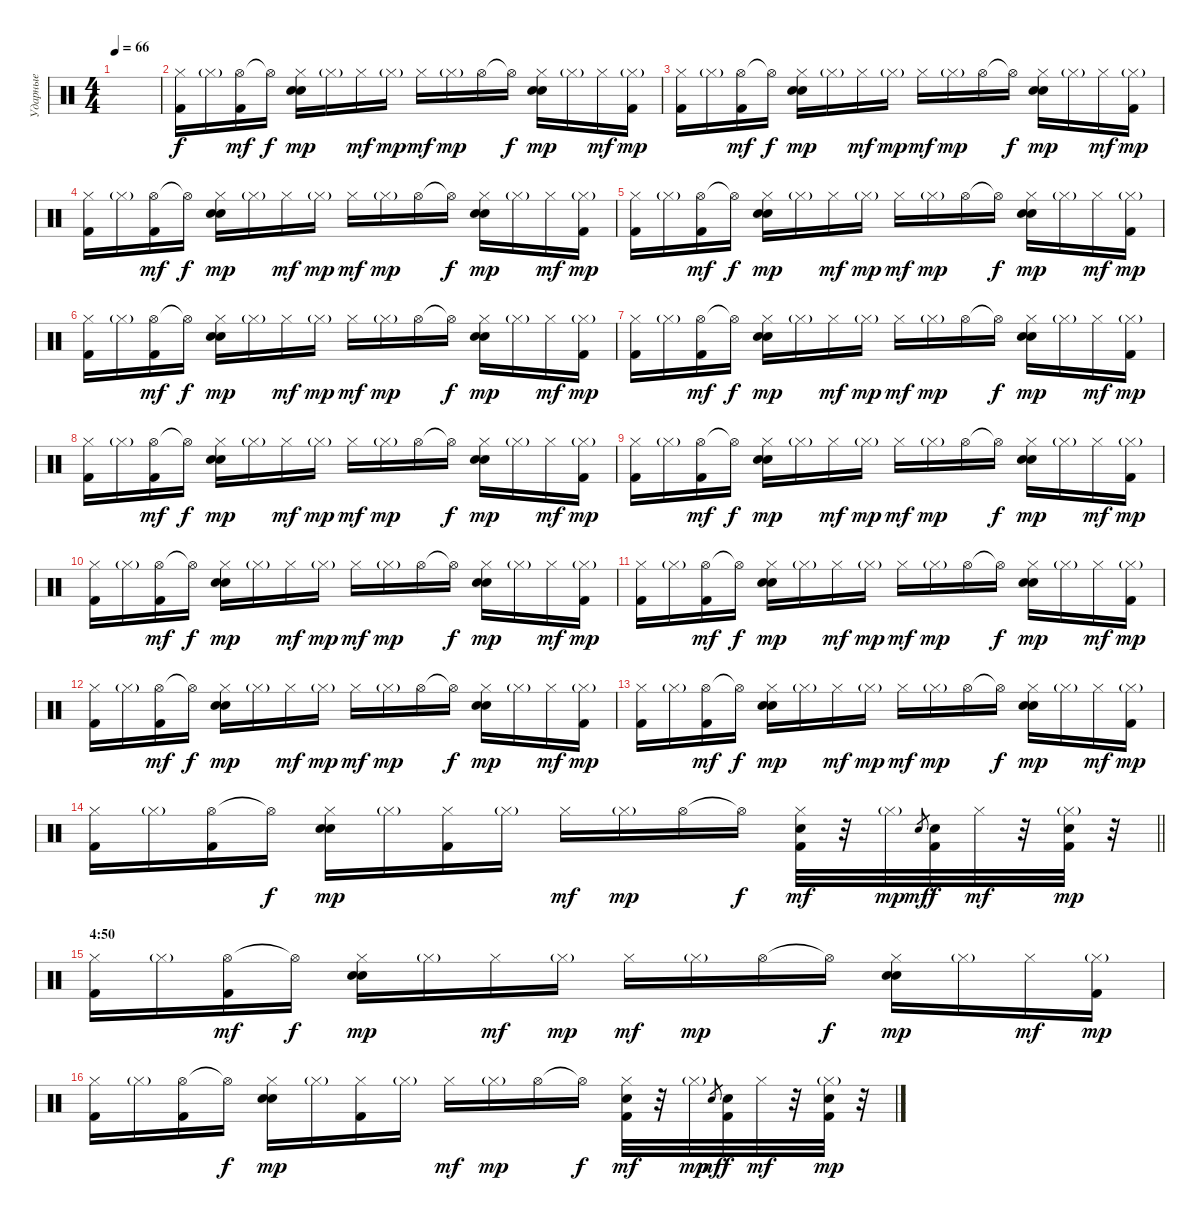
\track ("Ударные" "Ударные") {instrument percussion}
\staff {score}
\articulation defaults
\ts (4 4)
\tempo 66
\clef neutral
\ks c
|
("Hi-Hat (closed)" "Kick (hit) 2").16 "Hi-Hat (closed)"{g}.16 ("Hi-Hat (open)" "Kick (hit) 2").16{dy mf} "Hi-Hat (open)"{t}.16{dy f} ("Hi-Hat (closed)" "Hand Clap (hit)" "Electric Snare (hit)").16{dy mp} "Hi-Hat (closed)"{g}.16 "Hi-Hat (closed)".16{dy mf} "Hi-Hat (closed)"{g}.16{dy mp} "Hi-Hat (closed)".16{dy mf} "Hi-Hat (closed)"{g}.16{dy mp} "Hi-Hat (open)".16{balance 0} "Hi-Hat (open)"{t}.16{dy f} ("Hi-Hat (closed)" "Hand Clap (hit)" "Electric Snare (hit)").16{dy mp balance 8} "Hi-Hat (closed)"{g}.16 "Hi-Hat (closed)".16{dy mf} ("Hi-Hat (closed)"{g} "Kick (hit) 2").16{dy mp} |
("Hi-Hat (closed)" "Kick (hit) 2").16 "Hi-Hat (closed)"{g}.16 ("Hi-Hat (open)" "Kick (hit) 2").16{dy mf} "Hi-Hat (open)"{t}.16{dy f} ("Hi-Hat (closed)" "Hand Clap (hit)" "Electric Snare (hit)").16{dy mp} "Hi-Hat (closed)"{g}.16 "Hi-Hat (closed)".16{dy mf} "Hi-Hat (closed)"{g}.16{dy mp} "Hi-Hat (closed)".16{dy mf} "Hi-Hat (closed)"{g}.16{dy mp} "Hi-Hat (open)".16{balance 0} "Hi-Hat (open)"{t}.16{dy f} ("Hi-Hat (closed)" "Hand Clap (hit)" "Electric Snare (hit)").16{dy mp balance 8} "Hi-Hat (closed)"{g}.16 "Hi-Hat (closed)".16{dy mf} ("Hi-Hat (closed)"{g} "Kick (hit) 2").16{dy mp} |
("Hi-Hat (closed)" "Kick (hit) 2").16 "Hi-Hat (closed)"{g}.16 ("Hi-Hat (open)" "Kick (hit) 2").16{dy mf} "Hi-Hat (open)"{t}.16{dy f} ("Hi-Hat (closed)" "Hand Clap (hit)" "Electric Snare (hit)").16{dy mp} "Hi-Hat (closed)"{g}.16 "Hi-Hat (closed)".16{dy mf} "Hi-Hat (closed)"{g}.16{dy mp} "Hi-Hat (closed)".16{dy mf} "Hi-Hat (closed)"{g}.16{dy mp} "Hi-Hat (open)".16{balance 0} "Hi-Hat (open)"{t}.16{dy f} ("Hi-Hat (closed)" "Hand Clap (hit)" "Electric Snare (hit)").16{dy mp balance 8} "Hi-Hat (closed)"{g}.16 "Hi-Hat (closed)".16{dy mf} ("Hi-Hat (closed)"{g} "Kick (hit) 2").16{dy mp} |
("Hi-Hat (closed)" "Kick (hit) 2").16 "Hi-Hat (closed)"{g}.16 ("Hi-Hat (open)" "Kick (hit) 2").16{dy mf} "Hi-Hat (open)"{t}.16{dy f} ("Hi-Hat (closed)" "Hand Clap (hit)" "Electric Snare (hit)").16{dy mp} "Hi-Hat (closed)"{g}.16 "Hi-Hat (closed)".16{dy mf} "Hi-Hat (closed)"{g}.16{dy mp} "Hi-Hat (closed)".16{dy mf} "Hi-Hat (closed)"{g}.16{dy mp} "Hi-Hat (open)".16{balance 0} "Hi-Hat (open)"{t}.16{dy f} ("Hi-Hat (closed)" "Hand Clap (hit)" "Electric Snare (hit)").16{dy mp balance 8} "Hi-Hat (closed)"{g}.16 "Hi-Hat (closed)".16{dy mf} ("Hi-Hat (closed)"{g} "Kick (hit) 2").16{dy mp} |
("Hi-Hat (closed)" "Kick (hit) 2").16 "Hi-Hat (closed)"{g}.16 ("Hi-Hat (open)" "Kick (hit) 2").16{dy mf} "Hi-Hat (open)"{t}.16{dy f} ("Hi-Hat (closed)" "Hand Clap (hit)" "Electric Snare (hit)").16{dy mp} "Hi-Hat (closed)"{g}.16 "Hi-Hat (closed)".16{dy mf} "Hi-Hat (closed)"{g}.16{dy mp} "Hi-Hat (closed)".16{dy mf} "Hi-Hat (closed)"{g}.16{dy mp} "Hi-Hat (open)".16{balance 0} "Hi-Hat (open)"{t}.16{dy f} ("Hi-Hat (closed)" "Hand Clap (hit)" "Electric Snare (hit)").16{dy mp balance 8} "Hi-Hat (closed)"{g}.16 "Hi-Hat (closed)".16{dy mf} ("Hi-Hat (closed)"{g} "Kick (hit) 2").16{dy mp} |
("Hi-Hat (closed)" "Kick (hit) 2").16 "Hi-Hat (closed)"{g}.16 ("Hi-Hat (open)" "Kick (hit) 2").16{dy mf} "Hi-Hat (open)"{t}.16{dy f} ("Hi-Hat (closed)" "Hand Clap (hit)" "Electric Snare (hit)").16{dy mp} "Hi-Hat (closed)"{g}.16 "Hi-Hat (closed)".16{dy mf} "Hi-Hat (closed)"{g}.16{dy mp} "Hi-Hat (closed)".16{dy mf} "Hi-Hat (closed)"{g}.16{dy mp} "Hi-Hat (open)".16{balance 0} "Hi-Hat (open)"{t}.16{dy f} ("Hi-Hat (closed)" "Hand Clap (hit)" "Electric Snare (hit)").16{dy mp balance 8} "Hi-Hat (closed)"{g}.16 "Hi-Hat (closed)".16{dy mf} ("Hi-Hat (closed)"{g} "Kick (hit) 2").16{dy mp} |
("Hi-Hat (closed)" "Kick (hit) 2").16 "Hi-Hat (closed)"{g}.16 ("Hi-Hat (open)" "Kick (hit) 2").16{dy mf} "Hi-Hat (open)"{t}.16{dy f} ("Hi-Hat (closed)" "Hand Clap (hit)" "Electric Snare (hit)").16{dy mp} "Hi-Hat (closed)"{g}.16 "Hi-Hat (closed)".16{dy mf} "Hi-Hat (closed)"{g}.16{dy mp} "Hi-Hat (closed)".16{dy mf} "Hi-Hat (closed)"{g}.16{dy mp} "Hi-Hat (open)".16{balance 0} "Hi-Hat (open)"{t}.16{dy f} ("Hi-Hat (closed)" "Hand Clap (hit)" "Electric Snare (hit)").16{dy mp balance 8} "Hi-Hat (closed)"{g}.16 "Hi-Hat (closed)".16{dy mf} ("Hi-Hat (closed)"{g} "Kick (hit) 2").16{dy mp} |
("Hi-Hat (closed)" "Kick (hit) 2").16 "Hi-Hat (closed)"{g}.16 ("Hi-Hat (open)" "Kick (hit) 2").16{dy mf} "Hi-Hat (open)"{t}.16{dy f} ("Hi-Hat (closed)" "Hand Clap (hit)" "Electric Snare (hit)").16{dy mp} "Hi-Hat (closed)"{g}.16 "Hi-Hat (closed)".16{dy mf} "Hi-Hat (closed)"{g}.16{dy mp} "Hi-Hat (closed)".16{dy mf} "Hi-Hat (closed)"{g}.16{dy mp} "Hi-Hat (open)".16{balance 0} "Hi-Hat (open)"{t}.16{dy f} ("Hi-Hat (closed)" "Hand Clap (hit)" "Electric Snare (hit)").16{dy mp balance 8} "Hi-Hat (closed)"{g}.16 "Hi-Hat (closed)".16{dy mf} ("Hi-Hat (closed)"{g} "Kick (hit) 2").16{dy mp} |
("Hi-Hat (closed)" "Kick (hit) 2").16 "Hi-Hat (closed)"{g}.16 ("Hi-Hat (open)" "Kick (hit) 2").16{dy mf} "Hi-Hat (open)"{t}.16{dy f} ("Hi-Hat (closed)" "Hand Clap (hit)" "Electric Snare (hit)").16{dy mp} "Hi-Hat (closed)"{g}.16 "Hi-Hat (closed)".16{dy mf} "Hi-Hat (closed)"{g}.16{dy mp} "Hi-Hat (closed)".16{dy mf} "Hi-Hat (closed)"{g}.16{dy mp} "Hi-Hat (open)".16{balance 0} "Hi-Hat (open)"{t}.16{dy f} ("Hi-Hat (closed)" "Hand Clap (hit)" "Electric Snare (hit)").16{dy mp balance 8} "Hi-Hat (closed)"{g}.16 "Hi-Hat (closed)".16{dy mf} ("Hi-Hat (closed)"{g} "Kick (hit) 2").16{dy mp} |
("Hi-Hat (closed)" "Kick (hit) 2").16 "Hi-Hat (closed)"{g}.16 ("Hi-Hat (open)" "Kick (hit) 2").16{dy mf} "Hi-Hat (open)"{t}.16{dy f} ("Hi-Hat (closed)" "Hand Clap (hit)" "Electric Snare (hit)").16{dy mp} "Hi-Hat (closed)"{g}.16 "Hi-Hat (closed)".16{dy mf} "Hi-Hat (closed)"{g}.16{dy mp} "Hi-Hat (closed)".16{dy mf} "Hi-Hat (closed)"{g}.16{dy mp} "Hi-Hat (open)".16{balance 0} "Hi-Hat (open)"{t}.16{dy f} ("Hi-Hat (closed)" "Hand Clap (hit)" "Electric Snare (hit)").16{dy mp balance 8} "Hi-Hat (closed)"{g}.16 "Hi-Hat (closed)".16{dy mf} ("Hi-Hat (closed)"{g} "Kick (hit) 2").16{dy mp} |
("Hi-Hat (closed)" "Kick (hit) 2").16 "Hi-Hat (closed)"{g}.16 ("Hi-Hat (open)" "Kick (hit) 2").16{dy mf} "Hi-Hat (open)"{t}.16{dy f} ("Hi-Hat (closed)" "Hand Clap (hit)" "Electric Snare (hit)").16{dy mp} "Hi-Hat (closed)"{g}.16 "Hi-Hat (closed)".16{dy mf} "Hi-Hat (closed)"{g}.16{dy mp} "Hi-Hat (closed)".16{dy mf} "Hi-Hat (closed)"{g}.16{dy mp} "Hi-Hat (open)".16{balance 0} "Hi-Hat (open)"{t}.16{dy f} ("Hi-Hat (closed)" "Hand Clap (hit)" "Electric Snare (hit)").16{dy mp balance 8} "Hi-Hat (closed)"{g}.16 "Hi-Hat (closed)".16{dy mf} ("Hi-Hat (closed)"{g} "Kick (hit) 2").16{dy mp} |
("Hi-Hat (closed)" "Kick (hit) 2").16 "Hi-Hat (closed)"{g}.16 ("Hi-Hat (open)" "Kick (hit) 2").16{dy mf} "Hi-Hat (open)"{t}.16{dy f} ("Hi-Hat (closed)" "Hand Clap (hit)" "Electric Snare (hit)").16{dy mp} "Hi-Hat (closed)"{g}.16 "Hi-Hat (closed)".16{dy mf} "Hi-Hat (closed)"{g}.16{dy mp} "Hi-Hat (closed)".16{dy mf} "Hi-Hat (closed)"{g}.16{dy mp} "Hi-Hat (open)".16{balance 0} "Hi-Hat (open)"{t}.16{dy f} ("Hi-Hat (closed)" "Hand Clap (hit)" "Electric Snare (hit)").16{dy mp balance 8} "Hi-Hat (closed)"{g}.16 "Hi-Hat (closed)".16{dy mf} ("Hi-Hat (closed)"{g} "Kick (hit) 2").16{dy mp} |
\barLineRight lightlight
("Hi-Hat (closed)" "Kick (hit) 2").16 "Hi-Hat (closed)"{g}.16 ("Hi-Hat (open)" "Kick (hit) 2").16 "Hi-Hat (open)"{t}.16{dy f} ("Hi-Hat (closed)" "Hand Clap (hit)" "Electric Snare (hit)").16{dy mp} "Hi-Hat (closed)"{g}.16 ("Hi-Hat (closed)" "Kick (hit) 2").16 "Hi-Hat (closed)"{g}.16 "Hi-Hat (closed)".16{dy mf} "Hi-Hat (closed)"{g}.16{dy mp} "Hi-Hat (open)".16{balance 0} "Hi-Hat (open)"{t}.16{dy f} ("Hi-Hat (closed)" "Hand Clap (hit)" "Kick (hit) 2").32{dy mf balance 8} r.32 "Hi-Hat (closed)"{g}.32{dy mp} "Hand Clap (hit)".8{gr dy mf} ("Hand Clap (hit)" "Kick (hit) 2").32{dy f} "Hi-Hat (closed)".32{dy mf} r.32 ("Hand Clap (hit)" "Hi-Hat (closed)"{g} "Kick (hit) 2").32{dy mp} r.32 |
\section ("" "4:50")
("Hi-Hat (closed)" "Kick (hit) 2").16 "Hi-Hat (closed)"{g}.16 ("Hi-Hat (open)" "Kick (hit) 2").16{dy mf} "Hi-Hat (open)"{t}.16{dy f} ("Hi-Hat (closed)" "Hand Clap (hit)" "Electric Snare (hit)").16{dy mp} "Hi-Hat (closed)"{g}.16 "Hi-Hat (closed)".16{dy mf} "Hi-Hat (closed)"{g}.16{dy mp} "Hi-Hat (closed)".16{dy mf} "Hi-Hat (closed)"{g}.16{dy mp} "Hi-Hat (open)".16{balance 0} "Hi-Hat (open)"{t}.16{dy f} ("Hi-Hat (closed)" "Hand Clap (hit)" "Electric Snare (hit)").16{dy mp balance 8} "Hi-Hat (closed)"{g}.16 "Hi-Hat (closed)".16{dy mf} ("Hi-Hat (closed)"{g} "Kick (hit) 2").16{dy mp} |
("Hi-Hat (closed)" "Kick (hit) 2").16 "Hi-Hat (closed)"{g}.16 ("Hi-Hat (open)" "Kick (hit) 2").16 "Hi-Hat (open)"{t}.16{dy f} ("Hi-Hat (closed)" "Hand Clap (hit)" "Electric Snare (hit)").16{dy mp} "Hi-Hat (closed)"{g}.16 ("Hi-Hat (closed)" "Kick (hit) 2").16 "Hi-Hat (closed)"{g}.16 "Hi-Hat (closed)".16{dy mf} "Hi-Hat (closed)"{g}.16{dy mp} "Hi-Hat (open)".16{balance 0} "Hi-Hat (open)"{t}.16{dy f} ("Hi-Hat (closed)" "Hand Clap (hit)" "Kick (hit) 2").32{dy mf balance 8} r.32 "Hi-Hat (closed)"{g}.32{dy mp} "Hand Clap (hit)".8{gr dy mf} ("Hand Clap (hit)" "Kick (hit) 2").32{dy f} "Hi-Hat (closed)".32{dy mf} r.32 ("Hand Clap (hit)" "Hi-Hat (closed)"{g} "Kick (hit) 2").32{dy mp} r.32
